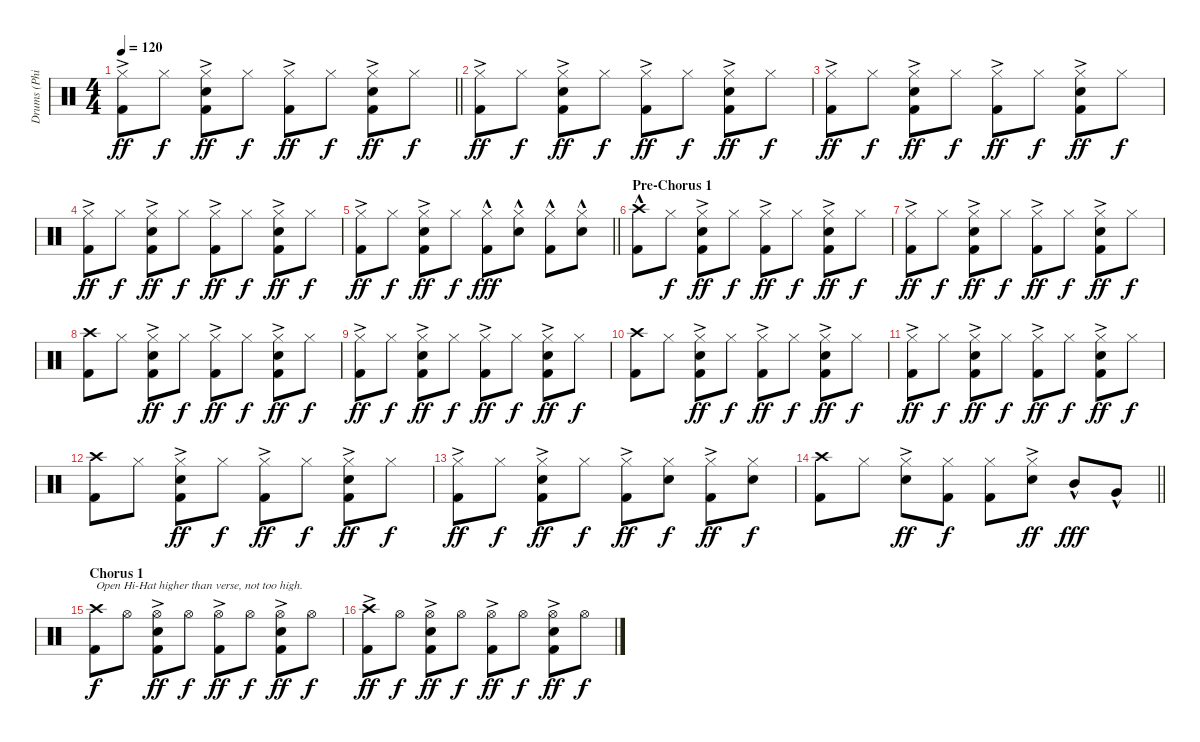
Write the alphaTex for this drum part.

\track ("Drums (Phil Rudd)" "Drums (Phi") {instrument percussion}
\staff {score}
\articulation defaults
\ts (4 4)
\tempo 120
\clef neutral
\barLineRight lightlight
\ks c
("Hi-Hat (closed)"{ac} "Kick (hit) 2").8{dy ff} "Hi-Hat (closed)".8{dy f} ("Kick (hit) 2" "Snare (hit) 2" "Hi-Hat (closed)"{ac}).8{dy ff} "Hi-Hat (closed)".8{dy f} ("Kick (hit) 2" "Hi-Hat (closed)"{ac}).8{dy ff} "Hi-Hat (closed)".8{dy f} ("Kick (hit) 2" "Snare (hit) 2" "Hi-Hat (closed)"{ac}).8{dy ff} "Hi-Hat (closed)".8{dy f} |
("Hi-Hat (closed)"{ac} "Kick (hit) 2").8{dy ff} "Hi-Hat (closed)".8{dy f} ("Kick (hit) 2" "Snare (hit) 2" "Hi-Hat (closed)"{ac}).8{dy ff} "Hi-Hat (closed)".8{dy f} ("Kick (hit) 2" "Hi-Hat (closed)"{ac}).8{dy ff} "Hi-Hat (closed)".8{dy f} ("Kick (hit) 2" "Snare (hit) 2" "Hi-Hat (closed)"{ac}).8{dy ff} "Hi-Hat (closed)".8{dy f} |
("Hi-Hat (closed)"{ac} "Kick (hit) 2").8{dy ff} "Hi-Hat (closed)".8{dy f} ("Kick (hit) 2" "Snare (hit) 2" "Hi-Hat (closed)"{ac}).8{dy ff} "Hi-Hat (closed)".8{dy f} ("Kick (hit) 2" "Hi-Hat (closed)"{ac}).8{dy ff} "Hi-Hat (closed)".8{dy f} ("Kick (hit) 2" "Snare (hit) 2" "Hi-Hat (closed)"{ac}).8{dy ff} "Hi-Hat (closed)".8{dy f} |
("Hi-Hat (closed)"{ac} "Kick (hit) 2").8{dy ff} "Hi-Hat (closed)".8{dy f} ("Kick (hit) 2" "Snare (hit) 2" "Hi-Hat (closed)"{ac}).8{dy ff} "Hi-Hat (closed)".8{dy f} ("Kick (hit) 2" "Hi-Hat (closed)"{ac}).8{dy ff} "Hi-Hat (closed)".8{dy f} ("Kick (hit) 2" "Snare (hit) 2" "Hi-Hat (closed)"{ac}).8{dy ff} "Hi-Hat (closed)".8{dy f} |
\barLineRight lightlight
("Hi-Hat (closed)"{ac} "Kick (hit) 2").8{dy ff} "Hi-Hat (closed)".8{dy f} ("Kick (hit) 2" "Snare (hit) 2" "Hi-Hat (closed)"{ac}).8{dy ff} "Hi-Hat (closed)".8{dy f} ("Kick (hit) 2" "Hi-Hat (closed)"{hac}).8{dy fff} ("Snare (hit) 2" "Hi-Hat (closed)"{hac}).8 ("Kick (hit) 2" "Hi-Hat (closed)"{hac}).8 ("Snare (hit) 2" "Hi-Hat (closed)"{hac}).8 |
\section ("" "Pre-Chorus 1")
("Kick (hit) 2" "Crash high (hit)"{hac}).8 "Hi-Hat (closed)".8{dy f} ("Kick (hit) 2" "Snare (hit) 2" "Hi-Hat (closed)"{ac}).8{dy ff} "Hi-Hat (closed)".8{dy f} ("Hi-Hat (closed)"{ac} "Kick (hit) 2").8{dy ff} "Hi-Hat (closed)".8{dy f} ("Kick (hit) 2" "Snare (hit) 2" "Hi-Hat (closed)"{ac}).8{dy ff} "Hi-Hat (closed)".8{dy f} |
("Hi-Hat (closed)"{ac} "Kick (hit) 2").8{dy ff} "Hi-Hat (closed)".8{dy f} ("Kick (hit) 2" "Snare (hit) 2" "Hi-Hat (closed)"{ac}).8{dy ff} "Hi-Hat (closed)".8{dy f} ("Kick (hit) 2" "Hi-Hat (closed)"{ac}).8{dy ff} "Hi-Hat (closed)".8{dy f} ("Kick (hit) 2" "Snare (hit) 2" "Hi-Hat (closed)"{ac}).8{dy ff} "Hi-Hat (closed)".8{dy f} |
("Kick (hit) 2" "Crash high (hit)").8 "Hi-Hat (closed)".8 ("Kick (hit) 2" "Snare (hit) 2" "Hi-Hat (closed)"{ac}).8{dy ff} "Hi-Hat (closed)".8{dy f} ("Hi-Hat (closed)"{ac} "Kick (hit) 2").8{dy ff} "Hi-Hat (closed)".8{dy f} ("Kick (hit) 2" "Snare (hit) 2" "Hi-Hat (closed)"{ac}).8{dy ff} "Hi-Hat (closed)".8{dy f} |
("Hi-Hat (closed)"{ac} "Kick (hit) 2").8{dy ff} "Hi-Hat (closed)".8{dy f} ("Kick (hit) 2" "Snare (hit) 2" "Hi-Hat (closed)"{ac}).8{dy ff} "Hi-Hat (closed)".8{dy f} ("Kick (hit) 2" "Hi-Hat (closed)"{ac}).8{dy ff} "Hi-Hat (closed)".8{dy f} ("Kick (hit) 2" "Snare (hit) 2" "Hi-Hat (closed)"{ac}).8{dy ff} "Hi-Hat (closed)".8{dy f} |
("Kick (hit) 2" "Crash high (hit)").8 "Hi-Hat (closed)".8 ("Kick (hit) 2" "Snare (hit) 2" "Hi-Hat (closed)"{ac}).8{dy ff} "Hi-Hat (closed)".8{dy f} ("Hi-Hat (closed)"{ac} "Kick (hit) 2").8{dy ff} "Hi-Hat (closed)".8{dy f} ("Kick (hit) 2" "Snare (hit) 2" "Hi-Hat (closed)"{ac}).8{dy ff} "Hi-Hat (closed)".8{dy f} |
("Hi-Hat (closed)"{ac} "Kick (hit) 2").8{dy ff} "Hi-Hat (closed)".8{dy f} ("Kick (hit) 2" "Snare (hit) 2" "Hi-Hat (closed)"{ac}).8{dy ff} "Hi-Hat (closed)".8{dy f} ("Kick (hit) 2" "Hi-Hat (closed)"{ac}).8{dy ff} "Hi-Hat (closed)".8{dy f} ("Kick (hit) 2" "Snare (hit) 2" "Hi-Hat (closed)"{ac}).8{dy ff} "Hi-Hat (closed)".8{dy f} |
("Kick (hit) 2" "Crash high (hit)").8 "Hi-Hat (closed)".8 ("Kick (hit) 2" "Snare (hit) 2" "Hi-Hat (closed)"{ac}).8{dy ff} "Hi-Hat (closed)".8{dy f} ("Hi-Hat (closed)"{ac} "Kick (hit) 2").8{dy ff} "Hi-Hat (closed)".8{dy f} ("Kick (hit) 2" "Snare (hit) 2" "Hi-Hat (closed)"{ac}).8{dy ff} "Hi-Hat (closed)".8{dy f} |
("Hi-Hat (closed)"{ac} "Kick (hit) 2").8{dy ff} "Hi-Hat (closed)".8{dy f} ("Kick (hit) 2" "Snare (hit) 2" "Hi-Hat (closed)"{ac}).8{dy ff} "Hi-Hat (closed)".8{dy f} ("Kick (hit) 2" "Hi-Hat (closed)"{ac}).8{dy ff} ("Snare (hit) 2" "Hi-Hat (closed)").8{dy f} ("Kick (hit) 2" "Hi-Hat (closed)"{ac}).8{dy ff} ("Snare (hit) 2" "Hi-Hat (closed)").8{dy f} |
\barLineRight lightlight
("Kick (hit) 2" "Crash high (hit)").8 "Hi-Hat (closed)".8 ("Snare (hit) 2" "Hi-Hat (closed)"{ac}).8{dy ff} ("Kick (hit) 2" "Hi-Hat (closed)").8{dy f} ("Hi-Hat (closed)" "Kick (hit) 2").8 ("Snare (hit) 2"{ac} "Hi-Hat (closed)").8{dy ff} "Mid Tom (hit)"{hac}.8{dy fff} "Very Low Tom (hit)"{hac}.8 |
\section ("" "Chorus 1")
("Crash high (hit)" "Kick (hit) 2").8{txt "Open Hi-Hat higher than verse, not too high." dy f} "Hi-Hat (open)".8 ("Snare (hit) 2" "Hi-Hat (open)"{ac} "Kick (hit) 2").8{dy ff} "Hi-Hat (open)".8{dy f} ("Hi-Hat (open)"{ac} "Kick (hit) 2").8{dy ff} "Hi-Hat (open)".8{dy f} ("Hi-Hat (open)"{ac} "Snare (hit) 2" "Kick (hit) 2").8{dy ff} "Hi-Hat (open)".8{dy f} |
("Crash high (hit)"{ac} "Kick (hit) 2").8{dy ff} "Hi-Hat (open)".8{dy f} ("Snare (hit) 2" "Hi-Hat (open)"{ac} "Kick (hit) 2").8{dy ff} "Hi-Hat (open)".8{dy f} ("Hi-Hat (open)"{ac} "Kick (hit) 2").8{dy ff} "Hi-Hat (open)".8{dy f} ("Hi-Hat (open)"{ac} "Snare (hit) 2" "Kick (hit) 2").8{dy ff} "Hi-Hat (open)".8{dy f}
